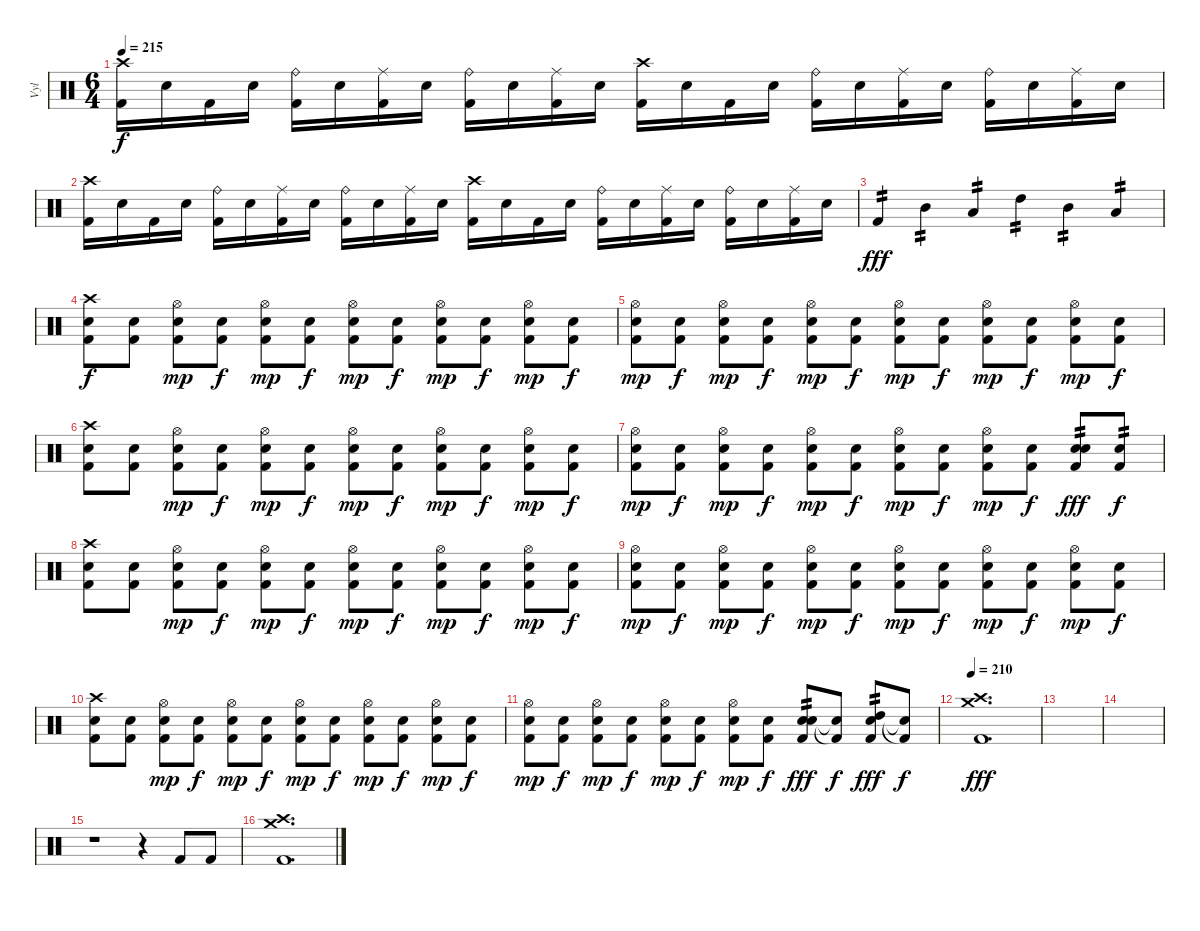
\track ("Vyl" "Vyl") {instrument percussion}
\staff {score}
\articulation defaults
\ts (6 4)
\tempo 215
\clef neutral
\ks c
("Crash high (hit)" "Kick (hit) 2").16{dy f} "Snare (hit) 2".16 "Kick (hit) 2".16 "Snare (hit) 2".16 ("Ride (bell)" "Kick (hit) 2").16 "Snare (hit) 2".16 ("Ride (middle)" "Kick (hit) 2").16 "Snare (hit) 2".16 ("Ride (bell)" "Kick (hit) 2").16 "Snare (hit) 2".16 ("Ride (middle)" "Kick (hit) 2").16 "Snare (hit) 2".16 ("Crash high (hit)" "Kick (hit) 2").16 "Snare (hit) 2".16 "Kick (hit) 2".16 "Snare (hit) 2".16 ("Ride (bell)" "Kick (hit) 2").16 "Snare (hit) 2".16 ("Ride (middle)" "Kick (hit) 2").16 "Snare (hit) 2".16 ("Ride (bell)" "Kick (hit) 2").16 "Snare (hit) 2".16 ("Ride (middle)" "Kick (hit) 2").16 "Snare (hit) 2".16 |
("Crash high (hit)" "Kick (hit) 2").16 "Snare (hit) 2".16 "Kick (hit) 2".16 "Snare (hit) 2".16 ("Ride (bell)" "Kick (hit) 2").16 "Snare (hit) 2".16 ("Ride (middle)" "Kick (hit) 2").16 "Snare (hit) 2".16 ("Ride (bell)" "Kick (hit) 2").16 "Snare (hit) 2".16 ("Ride (middle)" "Kick (hit) 2").16 "Snare (hit) 2".16 ("Crash high (hit)" "Kick (hit) 2").16 "Snare (hit) 2".16 "Kick (hit) 2".16 "Snare (hit) 2".16 ("Ride (bell)" "Kick (hit) 2").16 "Snare (hit) 2".16 ("Ride (middle)" "Kick (hit) 2").16 "Snare (hit) 2".16 ("Ride (bell)" "Kick (hit) 2").16 "Snare (hit) 2".16 ("Ride (middle)" "Kick (hit) 2").16 "Snare (hit) 2".16 |
"Kick (hit) 2".4{tp 2 dy fff} "Mid Tom (hit)".4{tp 2} "Low Tom (hit)".4{tp 2} "High Tom (hit)".4{tp 2} "Mid Tom (hit)".4{tp 2} "Low Tom (hit)".4{tp 2} |
("Crash high (hit)" "Snare (hit) 2" "Kick (hit) 2").8{dy f} ("Snare (hit) 2" "Kick (hit) 2").8 ("Hi-Hat (open)" "Snare (hit) 2" "Kick (hit) 2").8{dy mp} ("Snare (hit) 2" "Kick (hit) 2").8{dy f} ("Hi-Hat (open)" "Snare (hit) 2" "Kick (hit) 2").8{dy mp} ("Snare (hit) 2" "Kick (hit) 2").8{dy f} ("Hi-Hat (open)" "Snare (hit) 2" "Kick (hit) 2").8{dy mp} ("Snare (hit) 2" "Kick (hit) 2").8{dy f} ("Hi-Hat (open)" "Snare (hit) 2" "Kick (hit) 2").8{dy mp} ("Snare (hit) 2" "Kick (hit) 2").8{dy f} ("Hi-Hat (open)" "Snare (hit) 2" "Kick (hit) 2").8{dy mp} ("Snare (hit) 2" "Kick (hit) 2").8{dy f} |
("Hi-Hat (open)" "Snare (hit) 2" "Kick (hit) 2").8{dy mp} ("Snare (hit) 2" "Kick (hit) 2").8{dy f} ("Hi-Hat (open)" "Snare (hit) 2" "Kick (hit) 2").8{dy mp} ("Snare (hit) 2" "Kick (hit) 2").8{dy f} ("Hi-Hat (open)" "Snare (hit) 2" "Kick (hit) 2").8{dy mp} ("Snare (hit) 2" "Kick (hit) 2").8{dy f} ("Hi-Hat (open)" "Snare (hit) 2" "Kick (hit) 2").8{dy mp} ("Snare (hit) 2" "Kick (hit) 2").8{dy f} ("Hi-Hat (open)" "Snare (hit) 2" "Kick (hit) 2").8{dy mp} ("Snare (hit) 2" "Kick (hit) 2").8{dy f} ("Hi-Hat (open)" "Snare (hit) 2" "Kick (hit) 2").8{dy mp} ("Snare (hit) 2" "Kick (hit) 2").8{dy f} |
("Crash high (hit)" "Snare (hit) 2" "Kick (hit) 2").8 ("Snare (hit) 2" "Kick (hit) 2").8 ("Hi-Hat (open)" "Snare (hit) 2" "Kick (hit) 2").8{dy mp} ("Snare (hit) 2" "Kick (hit) 2").8{dy f} ("Hi-Hat (open)" "Snare (hit) 2" "Kick (hit) 2").8{dy mp} ("Snare (hit) 2" "Kick (hit) 2").8{dy f} ("Hi-Hat (open)" "Snare (hit) 2" "Kick (hit) 2").8{dy mp} ("Snare (hit) 2" "Kick (hit) 2").8{dy f} ("Hi-Hat (open)" "Snare (hit) 2" "Kick (hit) 2").8{dy mp} ("Snare (hit) 2" "Kick (hit) 2").8{dy f} ("Hi-Hat (open)" "Snare (hit) 2" "Kick (hit) 2").8{dy mp} ("Snare (hit) 2" "Kick (hit) 2").8{dy f} |
("Hi-Hat (open)" "Snare (hit) 2" "Kick (hit) 2").8{dy mp} ("Snare (hit) 2" "Kick (hit) 2").8{dy f} ("Hi-Hat (open)" "Snare (hit) 2" "Kick (hit) 2").8{dy mp} ("Snare (hit) 2" "Kick (hit) 2").8{dy f} ("Hi-Hat (open)" "Snare (hit) 2" "Kick (hit) 2").8{dy mp} ("Snare (hit) 2" "Kick (hit) 2").8{dy f} ("Hi-Hat (open)" "Snare (hit) 2" "Kick (hit) 2").8{dy mp} ("Snare (hit) 2" "Kick (hit) 2").8{dy f} ("Hi-Hat (open)" "Snare (hit) 2" "Kick (hit) 2").8{dy mp} ("Snare (hit) 2" "Kick (hit) 2").8{dy f} ("Snare (hit)" "Snare (hit) 2" "Kick (hit) 2").8{tp 2 dy fff} ("Snare (hit)" "Kick (hit) 2").8{tp 2 dy f} |
("Crash high (hit)" "Snare (hit) 2" "Kick (hit) 2").8 ("Snare (hit) 2" "Kick (hit) 2").8 ("Hi-Hat (open)" "Snare (hit) 2" "Kick (hit) 2").8{dy mp} ("Snare (hit) 2" "Kick (hit) 2").8{dy f} ("Hi-Hat (open)" "Snare (hit) 2" "Kick (hit) 2").8{dy mp} ("Snare (hit) 2" "Kick (hit) 2").8{dy f} ("Hi-Hat (open)" "Snare (hit) 2" "Kick (hit) 2").8{dy mp} ("Snare (hit) 2" "Kick (hit) 2").8{dy f} ("Hi-Hat (open)" "Snare (hit) 2" "Kick (hit) 2").8{dy mp} ("Snare (hit) 2" "Kick (hit) 2").8{dy f} ("Hi-Hat (open)" "Snare (hit) 2" "Kick (hit) 2").8{dy mp} ("Snare (hit) 2" "Kick (hit) 2").8{dy f} |
("Hi-Hat (open)" "Snare (hit) 2" "Kick (hit) 2").8{dy mp} ("Snare (hit) 2" "Kick (hit) 2").8{dy f} ("Hi-Hat (open)" "Snare (hit) 2" "Kick (hit) 2").8{dy mp} ("Snare (hit) 2" "Kick (hit) 2").8{dy f} ("Hi-Hat (open)" "Snare (hit) 2" "Kick (hit) 2").8{dy mp} ("Snare (hit) 2" "Kick (hit) 2").8{dy f} ("Hi-Hat (open)" "Snare (hit) 2" "Kick (hit) 2").8{dy mp} ("Snare (hit) 2" "Kick (hit) 2").8{dy f} ("Hi-Hat (open)" "Snare (hit) 2" "Kick (hit) 2").8{dy mp} ("Snare (hit) 2" "Kick (hit) 2").8{dy f} ("Hi-Hat (open)" "Snare (hit) 2" "Kick (hit) 2").8{dy mp} ("Snare (hit) 2" "Kick (hit) 2").8{dy f} |
("Crash high (hit)" "Snare (hit) 2" "Kick (hit) 2").8 ("Snare (hit) 2" "Kick (hit) 2").8 ("Hi-Hat (open)" "Snare (hit) 2" "Kick (hit) 2").8{dy mp} ("Snare (hit) 2" "Kick (hit) 2").8{dy f} ("Hi-Hat (open)" "Snare (hit) 2" "Kick (hit) 2").8{dy mp} ("Snare (hit) 2" "Kick (hit) 2").8{dy f} ("Hi-Hat (open)" "Snare (hit) 2" "Kick (hit) 2").8{dy mp} ("Snare (hit) 2" "Kick (hit) 2").8{dy f} ("Hi-Hat (open)" "Snare (hit) 2" "Kick (hit) 2").8{dy mp} ("Snare (hit) 2" "Kick (hit) 2").8{dy f} ("Hi-Hat (open)" "Snare (hit) 2" "Kick (hit) 2").8{dy mp} ("Snare (hit) 2" "Kick (hit) 2").8{dy f} |
("Hi-Hat (open)" "Snare (hit) 2" "Kick (hit) 2").8{dy mp} ("Snare (hit) 2" "Kick (hit) 2").8{dy f} ("Hi-Hat (open)" "Snare (hit) 2" "Kick (hit) 2").8{dy mp} ("Snare (hit) 2" "Kick (hit) 2").8{dy f} ("Hi-Hat (open)" "Snare (hit) 2" "Kick (hit) 2").8{dy mp} ("Snare (hit) 2" "Kick (hit) 2").8{dy f} ("Hi-Hat (open)" "Snare (hit) 2" "Kick (hit) 2").8{dy mp} ("Snare (hit) 2" "Kick (hit) 2").8{dy f} ("Snare (hit)" "Snare (hit) 2" "Kick (hit) 2").8{tp 2 dy fff} ("Snare (hit) 2"{t} "Kick (hit) 2"{t}).8{dy f} ("Snare (hit)" "High Tom (hit)" "Kick (hit) 2").8{tp 2 dy fff} ("Snare (hit)"{t} "Kick (hit) 2"{t}).8{dy f} |
\tempo 210
("Crash high (hit)" "Crash medium (hit)" "Kick (hit) 2").1{d dy fff} |
|
|
r.1 r.4 "Kick (hit) 2".8 "Kick (hit) 2".8 |
("Crash high (hit)" "Crash medium (hit)" "Kick (hit) 2").1{d}
